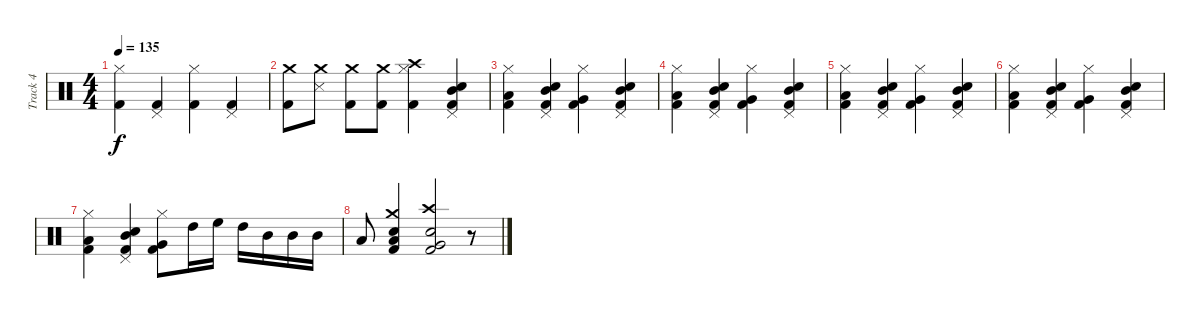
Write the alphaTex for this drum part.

\track ("Track 4" "Track 4") {instrument percussion}
\staff {score}
\articulation defaults
\ts (4 4)
\tempo 135
\clef neutral
\ks c
("Hi-Hat (closed)" "Kick (hit) 2").4{dy f} ("Pedal Hi-Hat (hit)" "Kick (hit) 2").4 ("Hi-Hat (closed)" "Kick (hit) 2").4 ("Pedal Hi-Hat (hit)" "Kick (hit) 2").4 |
("Kick (hit) 2" "Crash medium (hit)").8 ("Snare (side stick) 3" "Crash medium (hit)").8 ("Kick (hit) 2" "Crash medium (hit)").8 ("Kick (hit) 2" "Crash medium (hit)").8 ("Hi-Hat (closed)" "Kick (hit) 2" "Crash high (hit)").4 ("Pedal Hi-Hat (hit)" "Kick (hit) 2" "Mid Tom (hit)" "Snare (hit) 2").4 |
("Hi-Hat (closed)" "Kick (hit) 2" "Low Tom (hit)").4 ("Pedal Hi-Hat (hit)" "Kick (hit) 2" "Mid Tom (hit)" "Snare (hit) 2").4 ("Hi-Hat (closed)" "Kick (hit) 2" "Very Low Tom (hit)").4 ("Pedal Hi-Hat (hit)" "Kick (hit) 2" "Mid Tom (hit)" "Snare (hit) 2").4 |
("Hi-Hat (closed)" "Kick (hit) 2" "Low Tom (hit)").4 ("Pedal Hi-Hat (hit)" "Kick (hit) 2" "Mid Tom (hit)" "Snare (hit) 2").4 ("Hi-Hat (closed)" "Kick (hit) 2" "Very Low Tom (hit)").4 ("Pedal Hi-Hat (hit)" "Kick (hit) 2" "Mid Tom (hit)" "Snare (hit) 2").4 |
("Hi-Hat (closed)" "Kick (hit) 2" "Low Tom (hit)").4 ("Pedal Hi-Hat (hit)" "Kick (hit) 2" "Mid Tom (hit)" "Snare (hit) 2").4 ("Hi-Hat (closed)" "Kick (hit) 2" "Very Low Tom (hit)").4 ("Pedal Hi-Hat (hit)" "Kick (hit) 2" "Mid Tom (hit)" "Snare (hit) 2").4 |
("Hi-Hat (closed)" "Kick (hit) 2" "Low Tom (hit)").4 ("Pedal Hi-Hat (hit)" "Kick (hit) 2" "Mid Tom (hit)" "Snare (hit) 2").4 ("Hi-Hat (closed)" "Kick (hit) 2" "Very Low Tom (hit)").4 ("Pedal Hi-Hat (hit)" "Kick (hit) 2" "Mid Tom (hit)" "Snare (hit) 2").4 |
("Hi-Hat (closed)" "Kick (hit) 2" "Low Tom (hit)").4 ("Pedal Hi-Hat (hit)" "Kick (hit) 2" "Mid Tom (hit)" "Snare (hit) 2").4 ("Hi-Hat (closed)" "Kick (hit) 2" "Very Low Tom (hit)").8 "High Tom (hit)".16 "High Floor Tom (hit)".16 "High Tom (hit)".16 "Mid Tom (hit)".16 "Mid Tom (hit)".16 "Mid Tom (hit)".16 |
"Low Tom (hit)".8 ("Kick (hit) 2" "Snare (hit) 2" "Low Tom (hit)" "Crash medium (hit)").4 ("Kick (hit) 2" "Snare (hit) 2" "Very Low Tom (hit)" "Crash high (hit)").2 r.8
